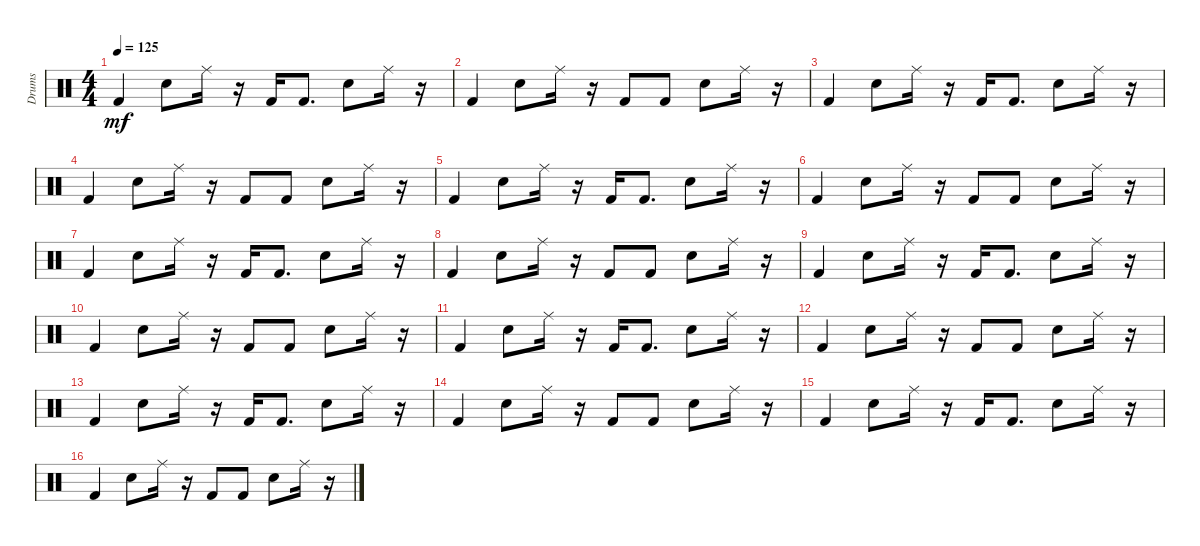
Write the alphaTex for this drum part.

\track ("Drums" "Drums") {instrument percussion}
\staff {score}
\articulation defaults
\ts (4 4)
\tempo 125
\clef neutral
\ks c "Kick (hit) 2".4{dy mf} "Electric Snare (hit)".8 "Ride (middle)".16
r.16 "Kick (hit) 2".16 "Kick (hit) 2".8{d} "Electric Snare (hit)".8 "Ride (middle)".16 r.16 |
"Kick (hit) 2".4 "Electric Snare (hit)".8 "Ride (middle)".16 r.16 "Kick (hit) 2".8 "Kick (hit) 2".8 "Electric Snare (hit)".8 "Ride (middle)".16 r.16 |
"Kick (hit) 2".4 "Electric Snare (hit)".8 "Ride (middle)".16 r.16 "Kick (hit) 2".16 "Kick (hit) 2".8{d} "Electric Snare (hit)".8 "Ride (middle)".16 r.16 |
"Kick (hit) 2".4 "Electric Snare (hit)".8 "Ride (middle)".16 r.16 "Kick (hit) 2".8 "Kick (hit) 2".8 "Electric Snare (hit)".8 "Ride (middle)".16 r.16 |
"Kick (hit) 2".4 "Electric Snare (hit)".8 "Ride (middle)".16 r.16 "Kick (hit) 2".16 "Kick (hit) 2".8{d} "Electric Snare (hit)".8 "Ride (middle)".16 r.16 |
"Kick (hit) 2".4 "Electric Snare (hit)".8 "Ride (middle)".16 r.16 "Kick (hit) 2".8 "Kick (hit) 2".8 "Electric Snare (hit)".8 "Ride (middle)".16 r.16 |
"Kick (hit) 2".4 "Electric Snare (hit)".8 "Ride (middle)".16 r.16 "Kick (hit) 2".16 "Kick (hit) 2".8{d} "Electric Snare (hit)".8 "Ride (middle)".16 r.16 |
"Kick (hit) 2".4 "Electric Snare (hit)".8 "Ride (middle)".16 r.16 "Kick (hit) 2".8 "Kick (hit) 2".8 "Electric Snare (hit)".8 "Ride (middle)".16 r.16 |
"Kick (hit) 2".4 "Electric Snare (hit)".8 "Ride (middle)".16 r.16 "Kick (hit) 2".16 "Kick (hit) 2".8{d} "Electric Snare (hit)".8 "Ride (middle)".16 r.16 |
"Kick (hit) 2".4 "Electric Snare (hit)".8 "Ride (middle)".16 r.16 "Kick (hit) 2".8 "Kick (hit) 2".8 "Electric Snare (hit)".8 "Ride (middle)".16 r.16 |
"Kick (hit) 2".4 "Electric Snare (hit)".8 "Ride (middle)".16 r.16 "Kick (hit) 2".16 "Kick (hit) 2".8{d} "Electric Snare (hit)".8 "Ride (middle)".16 r.16 |
"Kick (hit) 2".4 "Electric Snare (hit)".8 "Ride (middle)".16 r.16 "Kick (hit) 2".8 "Kick (hit) 2".8 "Electric Snare (hit)".8 "Ride (middle)".16 r.16 |
"Kick (hit) 2".4 "Electric Snare (hit)".8 "Ride (middle)".16 r.16 "Kick (hit) 2".16 "Kick (hit) 2".8{d} "Electric Snare (hit)".8 "Ride (middle)".16 r.16 |
"Kick (hit) 2".4 "Electric Snare (hit)".8 "Ride (middle)".16 r.16 "Kick (hit) 2".8 "Kick (hit) 2".8 "Electric Snare (hit)".8 "Ride (middle)".16 r.16 |
"Kick (hit) 2".4 "Electric Snare (hit)".8 "Ride (middle)".16 r.16 "Kick (hit) 2".16 "Kick (hit) 2".8{d} "Electric Snare (hit)".8 "Ride (middle)".16 r.16 |
"Kick (hit) 2".4 "Electric Snare (hit)".8 "Ride (middle)".16 r.16 "Kick (hit) 2".8 "Kick (hit) 2".8 "Electric Snare (hit)".8 "Ride (middle)".16 r.16
